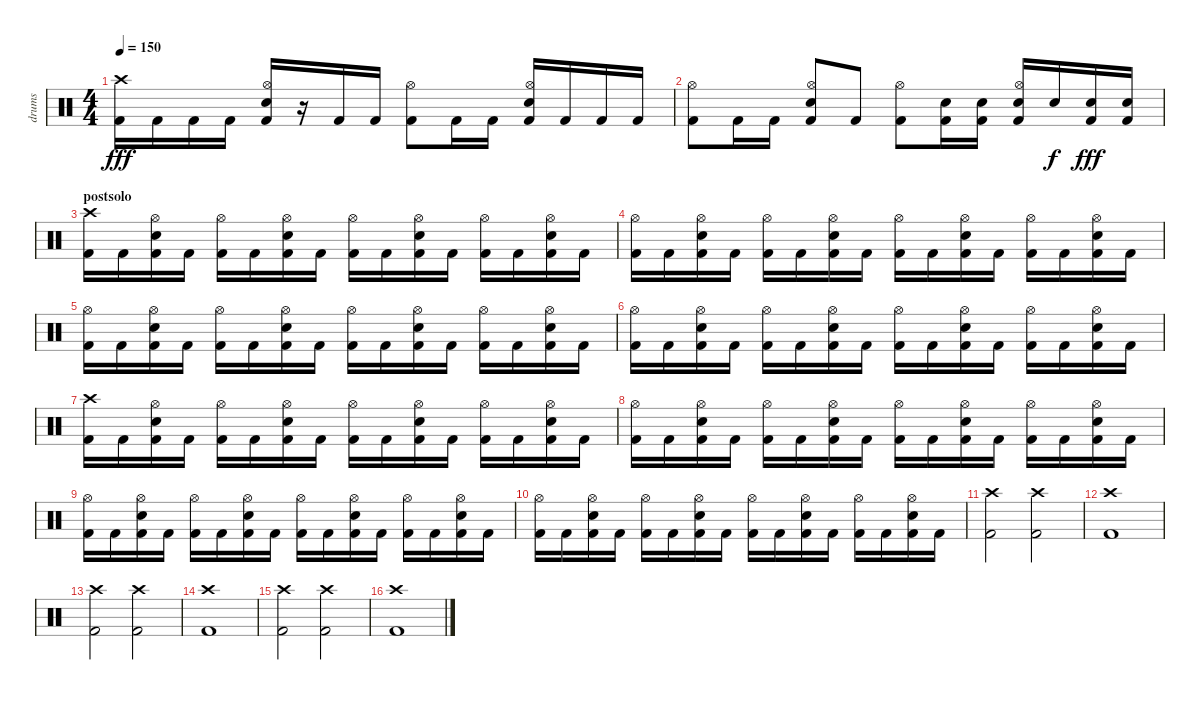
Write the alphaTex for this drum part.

\track ("drums" "drums") {instrument percussion}
\staff {score}
\articulation defaults
\ts (4 4)
\tempo 150
\clef neutral
\ks c
("Crash high (hit)" "Kick (hit) 2").16{dy fff} "Kick (hit) 2".16 "Kick (hit) 2".16 "Kick (hit) 2".16 ("Hi-Hat (open)" "Snare (hit) 2" "Kick (hit) 2").16 r.16 "Kick (hit) 2".16 "Kick (hit) 2".16 ("Hi-Hat (open)" "Kick (hit) 2").8 "Kick (hit) 2".16 "Kick (hit) 2".16 ("Hi-Hat (open)" "Snare (hit) 2" "Kick (hit) 2").16 "Kick (hit) 2".16 "Kick (hit) 2".16 "Kick (hit) 2".16 |
("Hi-Hat (open)" "Kick (hit) 2").8 "Kick (hit) 2".16 "Kick (hit) 2".16 ("Hi-Hat (open)" "Snare (hit) 2" "Kick (hit) 2").8 "Kick (hit) 2".8 ("Hi-Hat (open)" "Kick (hit) 2").8 ("Snare (hit) 2" "Kick (hit) 2").16 ("Snare (hit) 2" "Kick (hit) 2").16 ("Hi-Hat (open)" "Snare (hit) 2" "Kick (hit) 2").16 "Snare (hit) 2".16{dy f} ("Snare (hit) 2" "Kick (hit) 2").16{dy fff} ("Snare (hit) 2" "Kick (hit) 2").16 |
\section ("" "postsolo")
("Crash high (hit)" "Kick (hit) 2").16 "Kick (hit) 2".16 ("Hi-Hat (open)" "Snare (hit) 2" "Kick (hit) 2").16 "Kick (hit) 2".16 ("Hi-Hat (open)" "Kick (hit) 2").16 "Kick (hit) 2".16 ("Hi-Hat (open)" "Snare (hit) 2" "Kick (hit) 2").16 "Kick (hit) 2".16 ("Hi-Hat (open)" "Kick (hit) 2").16 "Kick (hit) 2".16 ("Hi-Hat (open)" "Snare (hit) 2" "Kick (hit) 2").16 "Kick (hit) 2".16 ("Hi-Hat (open)" "Kick (hit) 2").16 "Kick (hit) 2".16 ("Hi-Hat (open)" "Snare (hit) 2" "Kick (hit) 2").16 "Kick (hit) 2".16 |
("Hi-Hat (open)" "Kick (hit) 2").16 "Kick (hit) 2".16 ("Hi-Hat (open)" "Snare (hit) 2" "Kick (hit) 2").16 "Kick (hit) 2".16 ("Hi-Hat (open)" "Kick (hit) 2").16 "Kick (hit) 2".16 ("Hi-Hat (open)" "Snare (hit) 2" "Kick (hit) 2").16 "Kick (hit) 2".16 ("Hi-Hat (open)" "Kick (hit) 2").16 "Kick (hit) 2".16 ("Hi-Hat (open)" "Snare (hit) 2" "Kick (hit) 2").16 "Kick (hit) 2".16 ("Hi-Hat (open)" "Kick (hit) 2").16 "Kick (hit) 2".16 ("Hi-Hat (open)" "Snare (hit) 2" "Kick (hit) 2").16 "Kick (hit) 2".16 |
("Hi-Hat (open)" "Kick (hit) 2").16 "Kick (hit) 2".16 ("Hi-Hat (open)" "Snare (hit) 2" "Kick (hit) 2").16 "Kick (hit) 2".16 ("Hi-Hat (open)" "Kick (hit) 2").16 "Kick (hit) 2".16 ("Hi-Hat (open)" "Snare (hit) 2" "Kick (hit) 2").16 "Kick (hit) 2".16 ("Hi-Hat (open)" "Kick (hit) 2").16 "Kick (hit) 2".16 ("Hi-Hat (open)" "Snare (hit) 2" "Kick (hit) 2").16 "Kick (hit) 2".16 ("Hi-Hat (open)" "Kick (hit) 2").16 "Kick (hit) 2".16 ("Hi-Hat (open)" "Snare (hit) 2" "Kick (hit) 2").16 "Kick (hit) 2".16 |
("Hi-Hat (open)" "Kick (hit) 2").16 "Kick (hit) 2".16 ("Hi-Hat (open)" "Snare (hit) 2" "Kick (hit) 2").16 "Kick (hit) 2".16 ("Hi-Hat (open)" "Kick (hit) 2").16 "Kick (hit) 2".16 ("Hi-Hat (open)" "Snare (hit) 2" "Kick (hit) 2").16 "Kick (hit) 2".16 ("Hi-Hat (open)" "Kick (hit) 2").16 "Kick (hit) 2".16 ("Hi-Hat (open)" "Snare (hit) 2" "Kick (hit) 2").16 "Kick (hit) 2".16 ("Hi-Hat (open)" "Kick (hit) 2").16 "Kick (hit) 2".16 ("Hi-Hat (open)" "Snare (hit) 2" "Kick (hit) 2").16 "Kick (hit) 2".16 |
("Crash high (hit)" "Kick (hit) 2").16 "Kick (hit) 2".16 ("Hi-Hat (open)" "Snare (hit) 2" "Kick (hit) 2").16 "Kick (hit) 2".16 ("Hi-Hat (open)" "Kick (hit) 2").16 "Kick (hit) 2".16 ("Hi-Hat (open)" "Snare (hit) 2" "Kick (hit) 2").16 "Kick (hit) 2".16 ("Hi-Hat (open)" "Kick (hit) 2").16 "Kick (hit) 2".16 ("Hi-Hat (open)" "Snare (hit) 2" "Kick (hit) 2").16 "Kick (hit) 2".16 ("Hi-Hat (open)" "Kick (hit) 2").16 "Kick (hit) 2".16 ("Hi-Hat (open)" "Snare (hit) 2" "Kick (hit) 2").16 "Kick (hit) 2".16 |
("Hi-Hat (open)" "Kick (hit) 2").16 "Kick (hit) 2".16 ("Hi-Hat (open)" "Snare (hit) 2" "Kick (hit) 2").16 "Kick (hit) 2".16 ("Hi-Hat (open)" "Kick (hit) 2").16 "Kick (hit) 2".16 ("Hi-Hat (open)" "Snare (hit) 2" "Kick (hit) 2").16 "Kick (hit) 2".16 ("Hi-Hat (open)" "Kick (hit) 2").16 "Kick (hit) 2".16 ("Hi-Hat (open)" "Snare (hit) 2" "Kick (hit) 2").16 "Kick (hit) 2".16 ("Hi-Hat (open)" "Kick (hit) 2").16 "Kick (hit) 2".16 ("Hi-Hat (open)" "Snare (hit) 2" "Kick (hit) 2").16 "Kick (hit) 2".16 |
("Hi-Hat (open)" "Kick (hit) 2").16 "Kick (hit) 2".16 ("Hi-Hat (open)" "Snare (hit) 2" "Kick (hit) 2").16 "Kick (hit) 2".16 ("Hi-Hat (open)" "Kick (hit) 2").16 "Kick (hit) 2".16 ("Hi-Hat (open)" "Snare (hit) 2" "Kick (hit) 2").16 "Kick (hit) 2".16 ("Hi-Hat (open)" "Kick (hit) 2").16 "Kick (hit) 2".16 ("Hi-Hat (open)" "Snare (hit) 2" "Kick (hit) 2").16 "Kick (hit) 2".16 ("Hi-Hat (open)" "Kick (hit) 2").16 "Kick (hit) 2".16 ("Hi-Hat (open)" "Snare (hit) 2" "Kick (hit) 2").16 "Kick (hit) 2".16 |
("Hi-Hat (open)" "Kick (hit) 2").16 "Kick (hit) 2".16 ("Hi-Hat (open)" "Snare (hit) 2" "Kick (hit) 2").16 "Kick (hit) 2".16 ("Hi-Hat (open)" "Kick (hit) 2").16 "Kick (hit) 2".16 ("Hi-Hat (open)" "Snare (hit) 2" "Kick (hit) 2").16 "Kick (hit) 2".16 ("Hi-Hat (open)" "Kick (hit) 2").16 "Kick (hit) 2".16 ("Hi-Hat (open)" "Snare (hit) 2" "Kick (hit) 2").16 "Kick (hit) 2".16 ("Hi-Hat (open)" "Kick (hit) 2").16 "Kick (hit) 2".16 ("Hi-Hat (open)" "Snare (hit) 2" "Kick (hit) 2").16 "Kick (hit) 2".16 |
("Crash high (hit)" "Kick (hit) 2").2 ("Crash high (hit)" "Kick (hit) 2").2 |
("Crash high (hit)" "Kick (hit) 2").1 |
("Crash high (hit)" "Kick (hit) 2").2 ("Crash high (hit)" "Kick (hit) 2").2 |
("Crash high (hit)" "Kick (hit) 2").1 |
("Crash high (hit)" "Kick (hit) 2").2 ("Crash high (hit)" "Kick (hit) 2").2 |
("Crash high (hit)" "Kick (hit) 2").1
